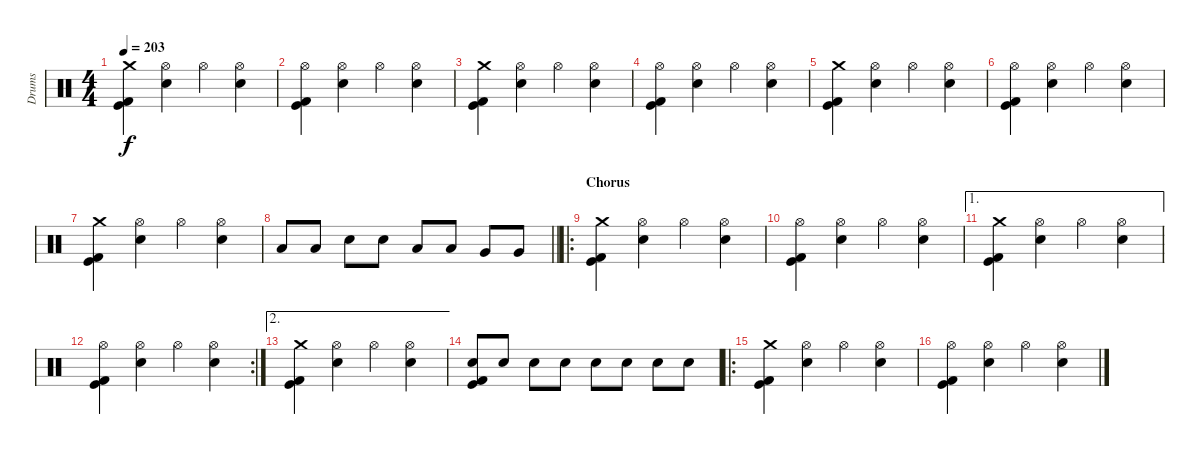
\track ("Drums" "Drums") {instrument percussion}
\staff {score}
\articulation defaults
\ts (4 4)
\tempo 203
\clef neutral
\ks c
("Crash medium (hit)" "Kick (hit)" "Kick (hit) 2").4{dy f} ("Hi-Hat (open)" "Electric Snare (hit)").4 "Hi-Hat (open)".4 ("Hi-Hat (open)" "Electric Snare (hit)").4 |
("Hi-Hat (open)" "Kick (hit)" "Kick (hit) 2").4 ("Hi-Hat (open)" "Electric Snare (hit)").4 "Hi-Hat (open)".4 ("Hi-Hat (open)" "Electric Snare (hit)").4 |
("Crash medium (hit)" "Kick (hit)" "Kick (hit) 2").4 ("Hi-Hat (open)" "Electric Snare (hit)").4 "Hi-Hat (open)".4 ("Hi-Hat (open)" "Electric Snare (hit)").4 |
("Hi-Hat (open)" "Kick (hit)" "Kick (hit) 2").4 ("Hi-Hat (open)" "Electric Snare (hit)").4 "Hi-Hat (open)".4 ("Hi-Hat (open)" "Electric Snare (hit)").4 |
("Crash medium (hit)" "Kick (hit)" "Kick (hit) 2").4 ("Hi-Hat (open)" "Electric Snare (hit)").4 "Hi-Hat (open)".4 ("Hi-Hat (open)" "Electric Snare (hit)").4 |
("Hi-Hat (open)" "Kick (hit)" "Kick (hit) 2").4 ("Hi-Hat (open)" "Electric Snare (hit)").4 "Hi-Hat (open)".4 ("Hi-Hat (open)" "Electric Snare (hit)").4 |
("Crash medium (hit)" "Kick (hit)" "Kick (hit) 2").4 ("Hi-Hat (open)" "Electric Snare (hit)").4 "Hi-Hat (open)".4 ("Hi-Hat (open)" "Electric Snare (hit)").4 |
\barLineRight lightlight "Low Tom (hit)".8 "Low Tom (hit)".8 "Electric Snare (hit)".8 "Electric Snare (hit)".8 "Low Tom (hit)".8 "Low Tom (hit)".8 "Very Low Tom (hit)".8 "Very Low Tom (hit)".8
|
\ro
\section ("" "Chorus")
("Crash medium (hit)" "Kick (hit)" "Kick (hit) 2").4 ("Hi-Hat (open)" "Electric Snare (hit)").4 "Hi-Hat (open)".4 ("Hi-Hat (open)" "Electric Snare (hit)").4 |
("Hi-Hat (open)" "Kick (hit)" "Kick (hit) 2").4 ("Hi-Hat (open)" "Electric Snare (hit)").4 "Hi-Hat (open)".4 ("Hi-Hat (open)" "Electric Snare (hit)").4 |
\ae 1
("Crash medium (hit)" "Kick (hit)" "Kick (hit) 2").4 ("Hi-Hat (open)" "Electric Snare (hit)").4 "Hi-Hat (open)".4 ("Hi-Hat (open)" "Electric Snare (hit)").4 |
\rc 2
("Hi-Hat (open)" "Kick (hit)" "Kick (hit) 2").4 ("Hi-Hat (open)" "Electric Snare (hit)").4 "Hi-Hat (open)".4 ("Hi-Hat (open)" "Electric Snare (hit)").4 |
\ae 2
("Crash medium (hit)" "Kick (hit)" "Kick (hit) 2").4 ("Hi-Hat (open)" "Electric Snare (hit)").4 "Hi-Hat (open)".4 ("Hi-Hat (open)" "Electric Snare (hit)").4 |
("Electric Snare (hit)" "Kick (hit)" "Kick (hit) 2").8 "Electric Snare (hit)".8 "Electric Snare (hit)".8 "Electric Snare (hit)".8 "Electric Snare (hit)".8 "Electric Snare (hit)".8 "Electric Snare (hit)".8 "Electric Snare (hit)".8 |
\ro
("Crash medium (hit)" "Kick (hit)" "Kick (hit) 2").4 ("Hi-Hat (open)" "Electric Snare (hit)").4 "Hi-Hat (open)".4 ("Hi-Hat (open)" "Electric Snare (hit)").4 |
("Hi-Hat (open)" "Kick (hit)" "Kick (hit) 2").4 ("Hi-Hat (open)" "Electric Snare (hit)").4 "Hi-Hat (open)".4 ("Hi-Hat (open)" "Electric Snare (hit)").4
